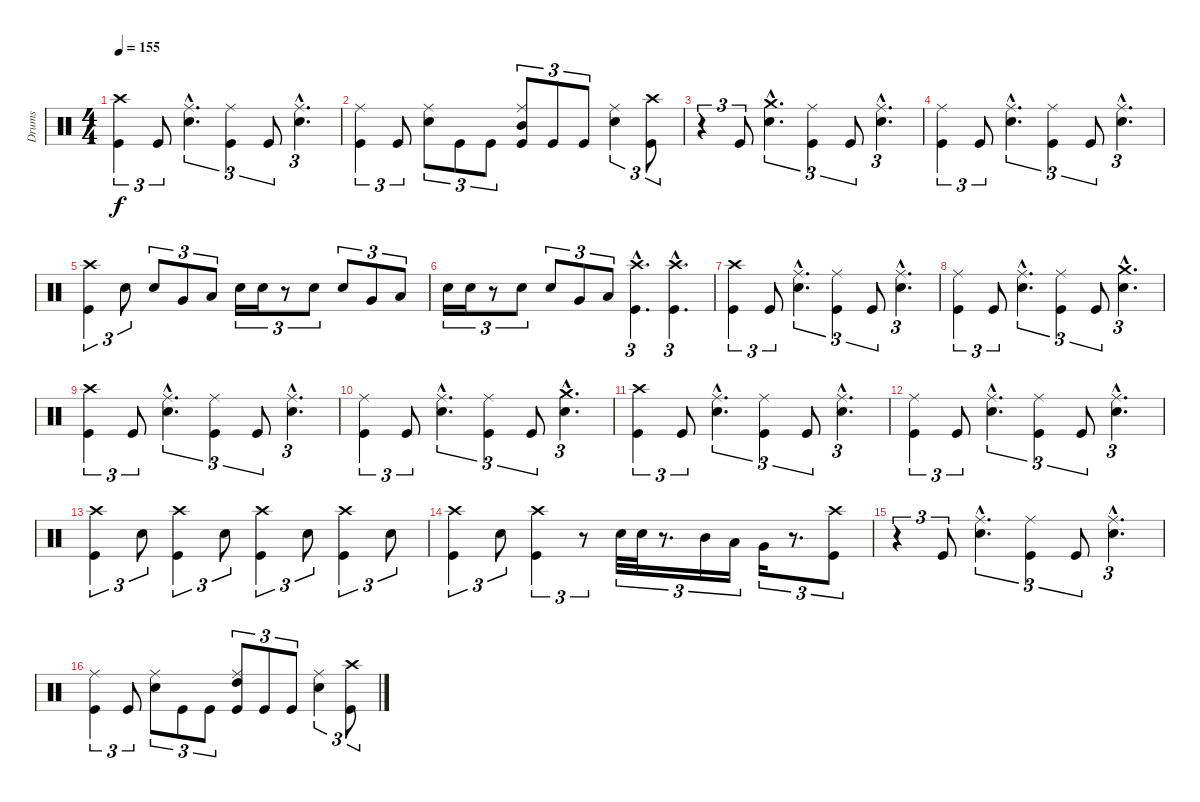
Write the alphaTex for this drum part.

\track ("Drums" "Drums") {instrument percussion}
\staff {score}
\articulation defaults
\ts (4 4)
\tempo 155
\clef neutral
\ks c
("Crash high (hit)" "Kick (hit)").4{tu (3 2) dy f} "Kick (hit)".8{tu (3 2)} ("Ride (middle)"{hac} "Snare (hit) 2"{hac}).4{d tu (3 2)} ("Ride (middle)" "Kick (hit)").4{tu (3 2)} "Kick (hit)".8{tu (3 2)} ("Ride (middle)"{hac} "Snare (hit) 2"{hac}).4{d tu (3 2)} |
("Ride (middle)" "Kick (hit)").4{tu (3 2)} "Kick (hit)".8{tu (3 2)} ("Ride (middle)" "Snare (hit) 2").8{tu (3 2)} "Kick (hit)".8{tu (3 2)} "Kick (hit)".8{tu (3 2)} ("Ride (middle)" "Kick (hit)" "Mid Tom (hit)").8{tu (3 2)} "Kick (hit)".8{tu (3 2)} "Kick (hit)".8{tu (3 2)} ("Ride (middle)" "Snare (hit) 2").4{tu (3 2)} ("Crash high (hit)" "Kick (hit)").8{tu (3 2)} |
r.4{tu (3 2)} "Kick (hit)".8{tu (3 2)} ("Crash medium (hit)"{hac} "Snare (hit) 2"{hac}).4{d tu (3 2)} ("Ride (middle)" "Kick (hit)").4{tu (3 2)} "Kick (hit)".8{tu (3 2)} ("Ride (middle)"{hac} "Snare (hit) 2"{hac}).4{d tu (3 2)} |
("Ride (middle)" "Kick (hit)").4{tu (3 2)} "Kick (hit)".8{tu (3 2)} ("Ride (middle)"{hac} "Snare (hit) 2"{hac}).4{d tu (3 2)} ("Ride (middle)" "Kick (hit)").4{tu (3 2)} "Kick (hit)".8{tu (3 2)} ("Ride (middle)"{hac} "Snare (hit) 2"{hac}).4{d tu (3 2)} |
("Crash high (hit)" "Kick (hit)").4{tu (3 2)} "Snare (hit) 2".8{tu (3 2)} "Snare (hit) 2".8{tu (3 2)} "Very Low Tom (hit)".8{tu (3 2)} "Low Floor Tom (hit)".8{tu (3 2)} "Snare (hit) 2".16{tu (3 2)} "Snare (hit) 2".16{tu (3 2)} r.8{tu (3 2)} "Snare (hit) 2".8{tu (3 2)} "Snare (hit) 2".8{tu (3 2)} "Very Low Tom (hit)".8{tu (3 2)} "Low Floor Tom (hit)".8{tu (3 2)} |
"Snare (hit) 2".16{tu (3 2)} "Snare (hit) 2".16{tu (3 2)} r.8{tu (3 2)} "Snare (hit) 2".8{tu (3 2)} "Snare (hit) 2".8{tu (3 2)} "Very Low Tom (hit)".8{tu (3 2)} "Low Floor Tom (hit)".8{tu (3 2)} ("Crash high (hit)"{hac} "Kick (hit)"{hac}).4{d tu (3 2)} ("Crash high (hit)"{hac} "Kick (hit)"{hac}).4{d tu (3 2)} |
("Crash high (hit)" "Kick (hit)").4{tu (3 2)} "Kick (hit)".8{tu (3 2)} ("Ride (middle)"{hac} "Snare (hit) 2"{hac}).4{d tu (3 2)} ("Ride (middle)" "Kick (hit)").4{tu (3 2)} "Kick (hit)".8{tu (3 2)} ("Ride (middle)"{hac} "Snare (hit) 2"{hac}).4{d tu (3 2)} |
("Ride (middle)" "Kick (hit)").4{tu (3 2)} "Kick (hit)".8{tu (3 2)} ("Ride (middle)"{hac} "Snare (hit) 2"{hac}).4{d tu (3 2)} ("Ride (middle)" "Kick (hit)").4{tu (3 2)} "Kick (hit)".8{tu (3 2)} ("Crash medium (hit)"{hac} "Snare (hit) 2"{hac}).4{d tu (3 2)} |
("Crash high (hit)" "Kick (hit)").4{tu (3 2)} "Kick (hit)".8{tu (3 2)} ("Ride (middle)"{hac} "Snare (hit) 2"{hac}).4{d tu (3 2)} ("Ride (middle)" "Kick (hit)").4{tu (3 2)} "Kick (hit)".8{tu (3 2)} ("Ride (middle)"{hac} "Snare (hit) 2"{hac}).4{d tu (3 2)} |
("Ride (middle)" "Kick (hit)").4{tu (3 2)} "Kick (hit)".8{tu (3 2)} ("Ride (middle)"{hac} "Snare (hit) 2"{hac}).4{d tu (3 2)} ("Ride (middle)" "Kick (hit)").4{tu (3 2)} "Kick (hit)".8{tu (3 2)} ("Crash medium (hit)"{hac} "Snare (hit) 2"{hac}).4{d tu (3 2)} |
("Crash high (hit)" "Kick (hit)").4{tu (3 2)} "Kick (hit)".8{tu (3 2)} ("Ride (middle)"{hac} "Snare (hit) 2"{hac}).4{d tu (3 2)} ("Ride (middle)" "Kick (hit)").4{tu (3 2)} "Kick (hit)".8{tu (3 2)} ("Ride (middle)"{hac} "Snare (hit) 2"{hac}).4{d tu (3 2)} |
("Ride (middle)" "Kick (hit)").4{tu (3 2)} "Kick (hit)".8{tu (3 2)} ("Ride (middle)"{hac} "Snare (hit) 2"{hac}).4{d tu (3 2)} ("Ride (middle)" "Kick (hit)").4{tu (3 2)} "Kick (hit)".8{tu (3 2)} ("Ride (middle)"{hac} "Snare (hit) 2"{hac}).4{d tu (3 2)} |
("Crash high (hit)" "Kick (hit)").4{tu (3 2)} "Snare (hit) 2".8{tu (3 2)} ("Crash high (hit)" "Kick (hit)").4{tu (3 2)} "Snare (hit) 2".8{tu (3 2)} ("Crash high (hit)" "Kick (hit)").4{tu (3 2)} "Snare (hit) 2".8{tu (3 2)} ("Crash high (hit)" "Kick (hit)").4{tu (3 2)} "Snare (hit) 2".8{tu (3 2)} |
("Crash high (hit)" "Kick (hit)").4{tu (3 2)} "Snare (hit) 2".8{tu (3 2)} ("Crash high (hit)" "Kick (hit)").4{tu (3 2)} r.8{tu (3 2)} "Snare (hit) 2".32{tu (3 2)} "Snare (hit) 2".32{tu (3 2)} r.8{d tu (3 2)} "Mid Tom (hit)".16{tu (3 2)} "Low Tom (hit)".16{tu (3 2)} "Very Low Tom (hit)".16{tu (3 2)} r.8{d tu (3 2)} ("Crash high (hit)" "Kick (hit)").8{tu (3 2)} |
r.4{tu (3 2)} "Kick (hit)".8{tu (3 2)} ("Ride (middle)"{hac} "Snare (hit) 2"{hac}).4{d tu (3 2)} ("Ride (middle)" "Kick (hit)").4{tu (3 2)} "Kick (hit)".8{tu (3 2)} ("Ride (middle)"{hac} "Snare (hit) 2"{hac}).4{d tu (3 2)} |
("Ride (middle)" "Kick (hit)").4{tu (3 2)} "Kick (hit)".8{tu (3 2)} ("Ride (middle)" "Snare (hit) 2").8{tu (3 2)} "Kick (hit)".8{tu (3 2)} "Kick (hit)".8{tu (3 2)} ("Ride (middle)" "Kick (hit)" "High Tom (hit)").8{tu (3 2)} "Kick (hit)".8{tu (3 2)} "Kick (hit)".8{tu (3 2)} ("Ride (middle)" "Snare (hit) 2").4{tu (3 2)} ("Crash high (hit)" "Kick (hit)").8{tu (3 2)}
